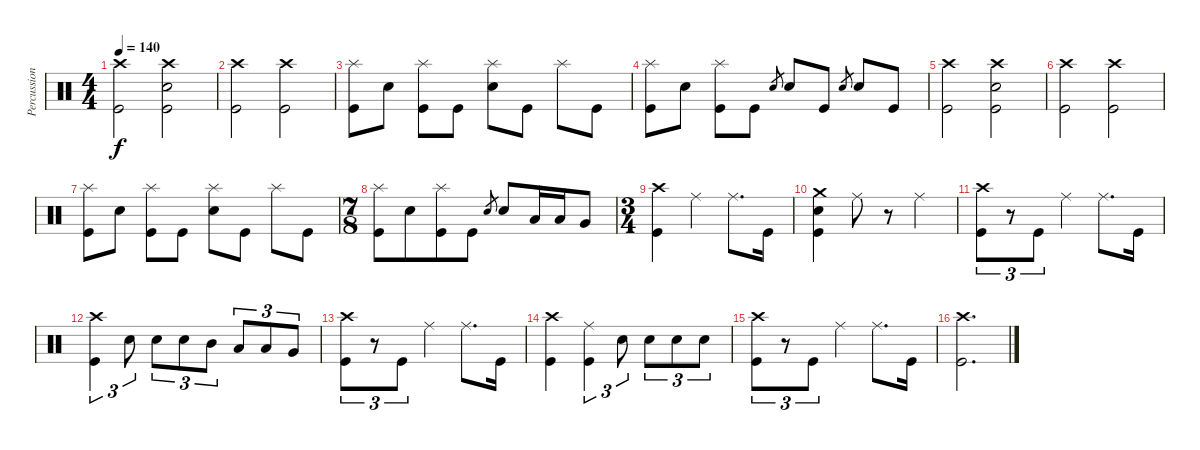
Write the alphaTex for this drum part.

\track ("Percussion" "Percussion") {instrument percussion}
\staff {score}
\articulation defaults
\ts (4 4)
\tempo 140
\clef neutral
\ks c
("Crash high (hit)" "Kick (hit)").2{dy f} ("Crash high (hit)" "Snare (hit) 2" "Kick (hit)").2 |
("Crash high (hit)" "Kick (hit)").2 ("Crash high (hit)" "Kick (hit)").2 |
("Splash (hit)" "Kick (hit)").8 "Snare (hit) 2".8 ("Splash (hit)" "Kick (hit)").8 "Kick (hit)".8 ("Splash (hit)" "Snare (hit) 2").8 "Kick (hit)".8 "Splash (hit)".8 "Kick (hit)".8 |
("Splash (hit)" "Kick (hit)").8 "Snare (hit) 2".8 ("Splash (hit)" "Kick (hit)").8 "Kick (hit)".8 "Snare (hit) 2".8{gr} "Snare (hit) 2".8 "Kick (hit)".8 "Snare (hit) 2".8{gr} "Snare (hit) 2".8 "Kick (hit)".8 |
("Crash high (hit)" "Kick (hit)").2 ("Crash high (hit)" "Snare (hit) 2" "Kick (hit)").2 |
("Crash high (hit)" "Kick (hit)").2 ("Crash high (hit)" "Kick (hit)").2 |
("Splash (hit)" "Kick (hit)").8 "Snare (hit) 2".8 ("Splash (hit)" "Kick (hit)").8 "Kick (hit)".8 ("Splash (hit)" "Snare (hit) 2").8 "Kick (hit)".8 "Splash (hit)".8 "Kick (hit)".8 |
\ts (7 8)
("Splash (hit)" "Kick (hit)").8 "Snare (hit) 2".8 ("Splash (hit)" "Kick (hit)").8 "Kick (hit)".8 "Snare (hit) 2".8{gr} "Snare (hit) 2".8 "Low Tom (hit)".16 "Low Tom (hit)".16 "Very Low Tom (hit)".8 |
\ts (3 4)
("Crash high (hit)" "Kick (hit)").4 "Ride (middle)".4 "Ride (middle)".8{d} "Kick (hit)".16 |
("Crash medium (hit)" "Snare (hit) 2" "Kick (hit)").4 "Ride (middle)".8 r.8 "Ride (middle)".4 |
("Crash high (hit)" "Kick (hit)").8{tu (3 2)} r.8{tu (3 2)} "Kick (hit)".8{tu (3 2)} "Ride (middle)".4 "Ride (middle)".8{d} "Kick (hit)".16 |
("Crash high (hit)" "Kick (hit)").4{tu (3 2)} "Snare (hit) 2".8{tu (3 2)} "Snare (hit) 2".8{tu (3 2)} "Snare (hit) 2".8{tu (3 2)} "Mid Tom (hit)".8{tu (3 2)} "Low Tom (hit)".8{tu (3 2)} "Low Tom (hit)".8{tu (3 2)} "Very Low Tom (hit)".8{tu (3 2)} |
("Crash high (hit)" "Kick (hit)").8{tu (3 2)} r.8{tu (3 2)} "Kick (hit)".8{tu (3 2)} "Ride (middle)".4 "Ride (middle)".8{d} "Kick (hit)".16 |
("Crash high (hit)" "Kick (hit)").4 ("Ride (middle)" "Kick (hit)").4{tu (3 2)} "Snare (hit) 2".8{tu (3 2)} "Snare (hit) 2".8{tu (3 2)} "Snare (hit) 2".8{tu (3 2)} "Snare (hit) 2".8{tu (3 2)} |
("Crash high (hit)" "Kick (hit)").8{tu (3 2)} r.8{tu (3 2)} "Kick (hit)".8{tu (3 2)} "Ride (middle)".4 "Ride (middle)".8{d} "Kick (hit)".16 |
("Crash high (hit)" "Kick (hit)").2{d}
